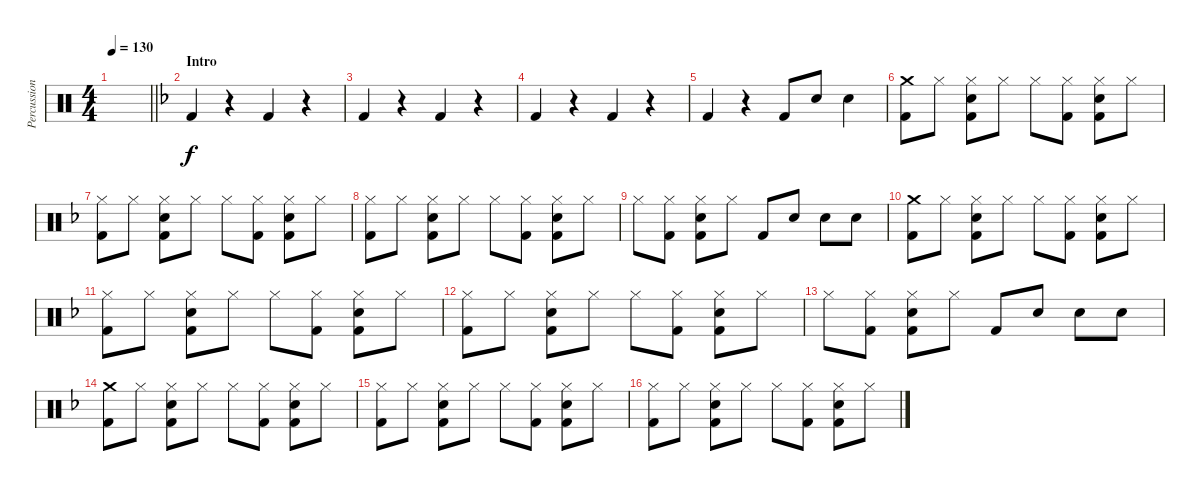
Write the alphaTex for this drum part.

\track ("Percussion" "Percussion") {instrument percussion}
\staff {score}
\articulation defaults
\ts (4 4)
\tempo 130
\clef neutral
\barLineRight lightlight
\ks c
|
\section ("" "Intro")
\ks f "Kick (hit) 2".4
r.4 "Kick (hit) 2".4 r.4 |
"Kick (hit) 2".4 r.4 "Kick (hit) 2".4 r.4 |
"Kick (hit) 2".4 r.4 "Kick (hit) 2".4 r.4 |
"Kick (hit) 2".4 r.4 "Kick (hit) 2".8 "Snare (hit) 2".8 "Snare (hit) 2".4 |
("Crash medium (hit)" "Kick (hit) 2").8 "Hi-Hat (closed)".8 ("Hi-Hat (closed)" "Snare (hit) 2" "Kick (hit) 2").8 "Hi-Hat (closed)".8 "Hi-Hat (closed)".8 ("Hi-Hat (closed)" "Kick (hit) 2").8 ("Hi-Hat (closed)" "Snare (hit) 2" "Kick (hit) 2").8 "Hi-Hat (closed)".8 |
("Hi-Hat (closed)" "Kick (hit) 2").8 "Hi-Hat (closed)".8 ("Hi-Hat (closed)" "Snare (hit) 2" "Kick (hit) 2").8 "Hi-Hat (closed)".8 "Hi-Hat (closed)".8 ("Hi-Hat (closed)" "Kick (hit) 2").8 ("Hi-Hat (closed)" "Snare (hit) 2" "Kick (hit) 2").8 "Hi-Hat (closed)".8 |
("Hi-Hat (closed)" "Kick (hit) 2").8 "Hi-Hat (closed)".8 ("Hi-Hat (closed)" "Snare (hit) 2" "Kick (hit) 2").8 "Hi-Hat (closed)".8 "Hi-Hat (closed)".8 ("Hi-Hat (closed)" "Kick (hit) 2").8 ("Hi-Hat (closed)" "Snare (hit) 2" "Kick (hit) 2").8 "Hi-Hat (closed)".8 |
"Hi-Hat (closed)".8 ("Hi-Hat (closed)" "Kick (hit) 2").8 ("Hi-Hat (closed)" "Snare (hit) 2" "Kick (hit) 2").8 "Hi-Hat (closed)".8 "Kick (hit) 2".8 "Snare (hit) 2".8 "Snare (hit) 2".8 "Snare (hit) 2".8 |
("Crash medium (hit)" "Kick (hit) 2").8 "Hi-Hat (closed)".8 ("Hi-Hat (closed)" "Snare (hit) 2" "Kick (hit) 2").8 "Hi-Hat (closed)".8 "Hi-Hat (closed)".8 ("Hi-Hat (closed)" "Kick (hit) 2").8 ("Hi-Hat (closed)" "Snare (hit) 2" "Kick (hit) 2").8 "Hi-Hat (closed)".8 |
("Hi-Hat (closed)" "Kick (hit) 2").8 "Hi-Hat (closed)".8 ("Hi-Hat (closed)" "Snare (hit) 2" "Kick (hit) 2").8 "Hi-Hat (closed)".8 "Hi-Hat (closed)".8 ("Hi-Hat (closed)" "Kick (hit) 2").8 ("Hi-Hat (closed)" "Snare (hit) 2" "Kick (hit) 2").8 "Hi-Hat (closed)".8 |
("Hi-Hat (closed)" "Kick (hit) 2").8 "Hi-Hat (closed)".8 ("Hi-Hat (closed)" "Snare (hit) 2" "Kick (hit) 2").8 "Hi-Hat (closed)".8 "Hi-Hat (closed)".8 ("Hi-Hat (closed)" "Kick (hit) 2").8 ("Hi-Hat (closed)" "Snare (hit) 2" "Kick (hit) 2").8 "Hi-Hat (closed)".8 |
"Hi-Hat (closed)".8 ("Hi-Hat (closed)" "Kick (hit) 2").8 ("Hi-Hat (closed)" "Snare (hit) 2" "Kick (hit) 2").8 "Hi-Hat (closed)".8 "Kick (hit) 2".8 "Snare (hit) 2".8 "Snare (hit) 2".8 "Snare (hit) 2".8 |
("Crash medium (hit)" "Kick (hit) 2").8 "Hi-Hat (closed)".8 ("Hi-Hat (closed)" "Snare (hit) 2" "Kick (hit) 2").8 "Hi-Hat (closed)".8 "Hi-Hat (closed)".8 ("Hi-Hat (closed)" "Kick (hit) 2").8 ("Hi-Hat (closed)" "Snare (hit) 2" "Kick (hit) 2").8 "Hi-Hat (closed)".8 |
("Hi-Hat (closed)" "Kick (hit) 2").8 "Hi-Hat (closed)".8 ("Hi-Hat (closed)" "Snare (hit) 2" "Kick (hit) 2").8 "Hi-Hat (closed)".8 "Hi-Hat (closed)".8 ("Hi-Hat (closed)" "Kick (hit) 2").8 ("Hi-Hat (closed)" "Snare (hit) 2" "Kick (hit) 2").8 "Hi-Hat (closed)".8 |
("Hi-Hat (closed)" "Kick (hit) 2").8 "Hi-Hat (closed)".8 ("Hi-Hat (closed)" "Snare (hit) 2" "Kick (hit) 2").8 "Hi-Hat (closed)".8 "Hi-Hat (closed)".8 ("Hi-Hat (closed)" "Kick (hit) 2").8 ("Hi-Hat (closed)" "Snare (hit) 2" "Kick (hit) 2").8 "Hi-Hat (closed)".8
